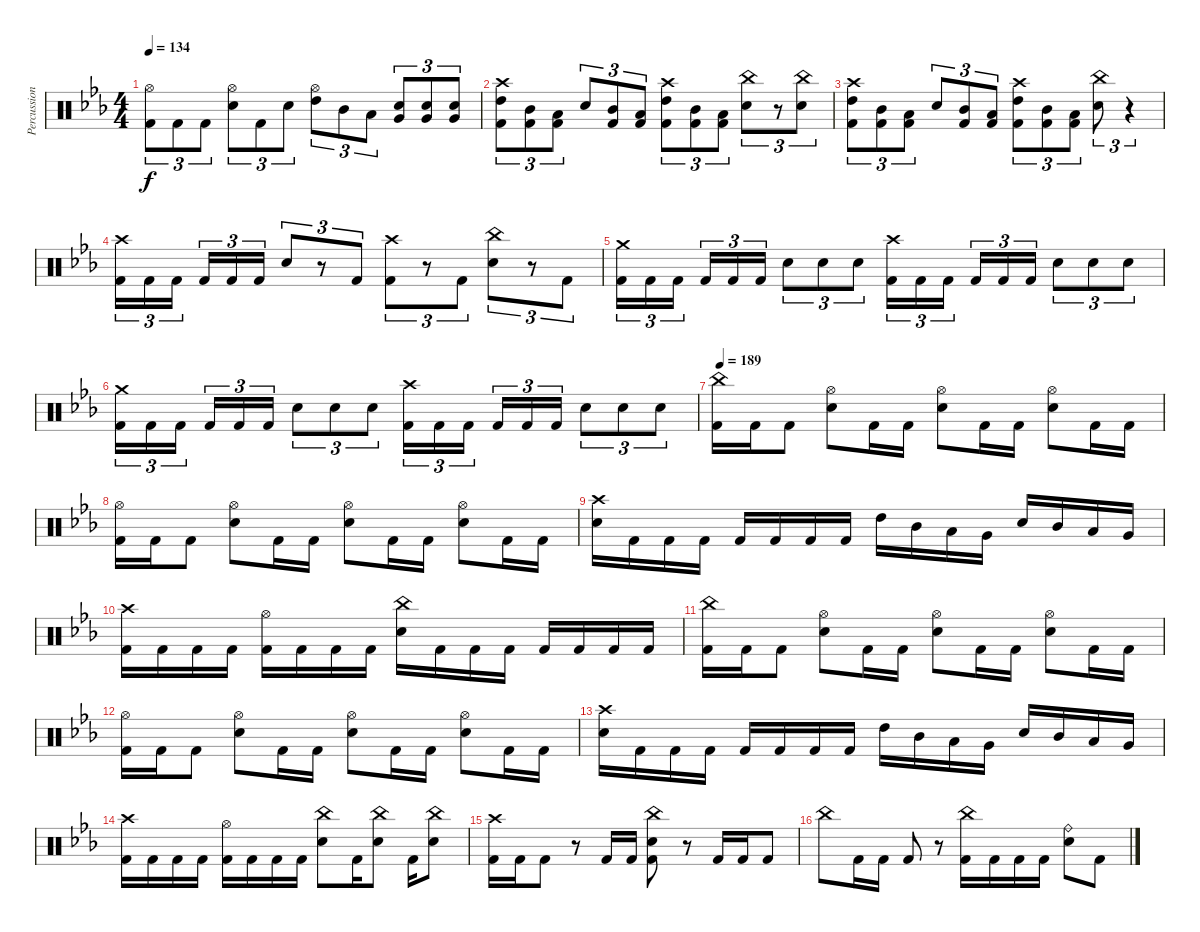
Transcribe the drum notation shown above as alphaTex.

\track ("Percussion" "Percussion") {instrument percussion}
\staff {score}
\articulation defaults
\ts (4 4)
\tempo 134
\clef neutral
\ks eb
("Hi-Hat (open)" "Kick (hit) 2").8{tu (3 2) dy f} "Kick (hit) 2".8{tu (3 2)} "Kick (hit) 2".8{tu (3 2)} ("Hi-Hat (open)" "Electric Snare (hit)").8{tu (3 2)} "Kick (hit) 2".8{tu (3 2)} "Electric Snare (hit)".8{tu (3 2)} ("Hi-Hat (open)" "High Tom (hit)").8{tu (3 2)} "Mid Tom (hit)".8{tu (3 2)} "Low Tom (hit)".8{tu (3 2)} ("Very Low Tom (hit)" "Electric Snare (hit)").8{tu (3 2)} ("Very Low Tom (hit)" "Electric Snare (hit)").8{tu (3 2)} ("Very Low Tom (hit)" "Electric Snare (hit)").8{tu (3 2)} |
("Crash high (hit)" "High Tom (hit)" "Kick (hit) 2").8{tu (3 2)} ("Mid Tom (hit)" "Kick (hit) 2").8{tu (3 2)} ("Low Tom (hit)" "Kick (hit) 2").8{tu (3 2)} "Electric Snare (hit)".8{tu (3 2)} ("Mid Tom (hit)" "Kick (hit) 2").8{tu (3 2)} ("Low Tom (hit)" "Kick (hit) 2").8{tu (3 2)} ("Crash high (hit)" "High Tom (hit)" "Kick (hit) 2").8{tu (3 2)} ("Mid Tom (hit)" "Kick (hit) 2").8{tu (3 2)} ("Low Tom (hit)" "Kick (hit) 2").8{tu (3 2)} ("China (hit)" "Electric Snare (hit)").8{tu (3 2)} r.8{tu (3 2)} ("China (hit)" "Electric Snare (hit)").8{tu (3 2)} |
("Crash high (hit)" "High Tom (hit)" "Kick (hit) 2").8{tu (3 2)} ("Mid Tom (hit)" "Kick (hit) 2").8{tu (3 2)} ("Low Tom (hit)" "Kick (hit) 2").8{tu (3 2)} "Electric Snare (hit)".8{tu (3 2)} ("Mid Tom (hit)" "Kick (hit) 2").8{tu (3 2)} ("Low Tom (hit)" "Kick (hit) 2").8{tu (3 2)} ("Crash high (hit)" "High Tom (hit)" "Kick (hit) 2").8{tu (3 2)} ("Mid Tom (hit)" "Kick (hit) 2").8{tu (3 2)} ("Low Tom (hit)" "Kick (hit) 2").8{tu (3 2)} ("China (hit)" "Electric Snare (hit)").8{tu (3 2)} r.4{tu (3 2)} |
("Crash high (hit)" "Kick (hit) 2").16{tu (3 2)} "Kick (hit) 2".16{tu (3 2)} "Kick (hit) 2".16{tu (3 2) beam splitsecondary} "Kick (hit) 2".16{tu (3 2)} "Kick (hit) 2".16{tu (3 2)} "Kick (hit) 2".16{tu (3 2)} "Electric Snare (hit)".8{tu (3 2)} r.8{tu (3 2)} "Kick (hit) 2".8{tu (3 2)} ("Crash high (hit)" "Kick (hit) 2").8{tu (3 2)} r.8{tu (3 2)} "Kick (hit) 2".8{tu (3 2)} ("China (hit)" "Electric Snare (hit)").8{tu (3 2)} r.8{tu (3 2)} "Kick (hit) 2".8{tu (3 2)} |
("Crash medium (hit)" "Kick (hit) 2").16{tu (3 2)} "Kick (hit) 2".16{tu (3 2)} "Kick (hit) 2".16{tu (3 2) beam splitsecondary} "Kick (hit) 2".16{tu (3 2)} "Kick (hit) 2".16{tu (3 2)} "Kick (hit) 2".16{tu (3 2)} "Electric Snare (hit)".8{tu (3 2)} "Electric Snare (hit)".8{tu (3 2)} "Electric Snare (hit)".8{tu (3 2)} ("Crash high (hit)" "Kick (hit) 2").16{tu (3 2)} "Kick (hit) 2".16{tu (3 2)} "Kick (hit) 2".16{tu (3 2) beam splitsecondary} "Kick (hit) 2".16{tu (3 2)} "Kick (hit) 2".16{tu (3 2)} "Kick (hit) 2".16{tu (3 2)} "Electric Snare (hit)".8{tu (3 2)} "Electric Snare (hit)".8{tu (3 2)} "Electric Snare (hit)".8{tu (3 2)} |
("Crash medium (hit)" "Kick (hit) 2").16{tu (3 2)} "Kick (hit) 2".16{tu (3 2)} "Kick (hit) 2".16{tu (3 2) beam splitsecondary} "Kick (hit) 2".16{tu (3 2)} "Kick (hit) 2".16{tu (3 2)} "Kick (hit) 2".16{tu (3 2)} "Electric Snare (hit)".8{tu (3 2)} "Electric Snare (hit)".8{tu (3 2)} "Electric Snare (hit)".8{tu (3 2)} ("Crash high (hit)" "Kick (hit) 2").16{tu (3 2)} "Kick (hit) 2".16{tu (3 2)} "Kick (hit) 2".16{tu (3 2) beam splitsecondary} "Kick (hit) 2".16{tu (3 2)} "Kick (hit) 2".16{tu (3 2)} "Kick (hit) 2".16{tu (3 2)} "Electric Snare (hit)".8{tu (3 2)} "Electric Snare (hit)".8{tu (3 2)} "Electric Snare (hit)".8{tu (3 2)} |
\tempo 189
("China (hit)" "Kick (hit) 2").16 "Kick (hit) 2".16 "Kick (hit) 2".8 ("Hi-Hat (open)" "Electric Snare (hit)").8 "Kick (hit) 2".16 "Kick (hit) 2".16 ("Hi-Hat (open)" "Electric Snare (hit)").8 "Kick (hit) 2".16 "Kick (hit) 2".16 ("Hi-Hat (open)" "Electric Snare (hit)").8 "Kick (hit) 2".16 "Kick (hit) 2".16 |
("Hi-Hat (open)" "Kick (hit) 2").16 "Kick (hit) 2".16 "Kick (hit) 2".8 ("Hi-Hat (open)" "Electric Snare (hit)").8 "Kick (hit) 2".16 "Kick (hit) 2".16 ("Hi-Hat (open)" "Electric Snare (hit)").8 "Kick (hit) 2".16 "Kick (hit) 2".16 ("Hi-Hat (open)" "Electric Snare (hit)").8 "Kick (hit) 2".16 "Kick (hit) 2".16 |
("Crash high (hit)" "Electric Snare (hit)").16 "Kick (hit) 2".16 "Kick (hit) 2".16 "Kick (hit) 2".16 "Kick (hit) 2".16 "Kick (hit) 2".16 "Kick (hit) 2".16 "Kick (hit) 2".16 "High Tom (hit)".16 "Mid Tom (hit)".16 "Low Tom (hit)".16 "Very Low Tom (hit)".16 "Electric Snare (hit)".16 "Mid Tom (hit)".16 "Low Tom (hit)".16 "Very Low Tom (hit)".16 |
("Crash high (hit)" "Kick (hit) 2").16 "Kick (hit) 2".16 "Kick (hit) 2".16 "Kick (hit) 2".16 ("Hi-Hat (open)" "Kick (hit) 2").16 "Kick (hit) 2".16 "Kick (hit) 2".16 "Kick (hit) 2".16 ("China (hit)" "Electric Snare (hit)").16 "Kick (hit) 2".16 "Kick (hit) 2".16 "Kick (hit) 2".16 "Kick (hit) 2".16 "Kick (hit) 2".16 "Kick (hit) 2".16 "Kick (hit) 2".16 |
("China (hit)" "Kick (hit) 2").16 "Kick (hit) 2".16 "Kick (hit) 2".8 ("Hi-Hat (open)" "Electric Snare (hit)").8 "Kick (hit) 2".16 "Kick (hit) 2".16 ("Hi-Hat (open)" "Electric Snare (hit)").8 "Kick (hit) 2".16 "Kick (hit) 2".16 ("Hi-Hat (open)" "Electric Snare (hit)").8 "Kick (hit) 2".16 "Kick (hit) 2".16 |
("Hi-Hat (open)" "Kick (hit) 2").16 "Kick (hit) 2".16 "Kick (hit) 2".8 ("Hi-Hat (open)" "Electric Snare (hit)").8 "Kick (hit) 2".16 "Kick (hit) 2".16 ("Hi-Hat (open)" "Electric Snare (hit)").8 "Kick (hit) 2".16 "Kick (hit) 2".16 ("Hi-Hat (open)" "Electric Snare (hit)").8 "Kick (hit) 2".16 "Kick (hit) 2".16 |
("Crash high (hit)" "Electric Snare (hit)").16 "Kick (hit) 2".16 "Kick (hit) 2".16 "Kick (hit) 2".16 "Kick (hit) 2".16 "Kick (hit) 2".16 "Kick (hit) 2".16 "Kick (hit) 2".16 "High Tom (hit)".16 "Mid Tom (hit)".16 "Low Tom (hit)".16 "Very Low Tom (hit)".16 "Electric Snare (hit)".16 "Mid Tom (hit)".16 "Low Tom (hit)".16 "Very Low Tom (hit)".16 |
("Crash high (hit)" "Kick (hit) 2").16 "Kick (hit) 2".16 "Kick (hit) 2".16 "Kick (hit) 2".16 ("Hi-Hat (open)" "Kick (hit) 2").16 "Kick (hit) 2".16 "Kick (hit) 2".16 "Kick (hit) 2".16 ("China (hit)" "Electric Snare (hit)").8 "Kick (hit) 2".16 ("China (hit)" "Electric Snare (hit)").8 "Kick (hit) 2".16 ("China (hit)" "Electric Snare (hit)").8 |
("Crash high (hit)" "Kick (hit) 2").16 "Kick (hit) 2".16 "Kick (hit) 2".8 r.8 "Kick (hit) 2".16 "Kick (hit) 2".16 ("China (hit)" "Electric Snare (hit)" "Kick (hit) 2").8 r.8 "Kick (hit) 2".16 "Kick (hit) 2".16 "Kick (hit) 2".8 |
"China (hit)".8 "Kick (hit) 2".16 "Kick (hit) 2".16 "Kick (hit) 2".8 r.8 ("China (hit)" "Kick (hit) 2").16 "Kick (hit) 2".16 "Kick (hit) 2".16 "Kick (hit) 2".16 ("Ride (bell)" "Electric Snare (hit)").8 "Kick (hit) 2".8
